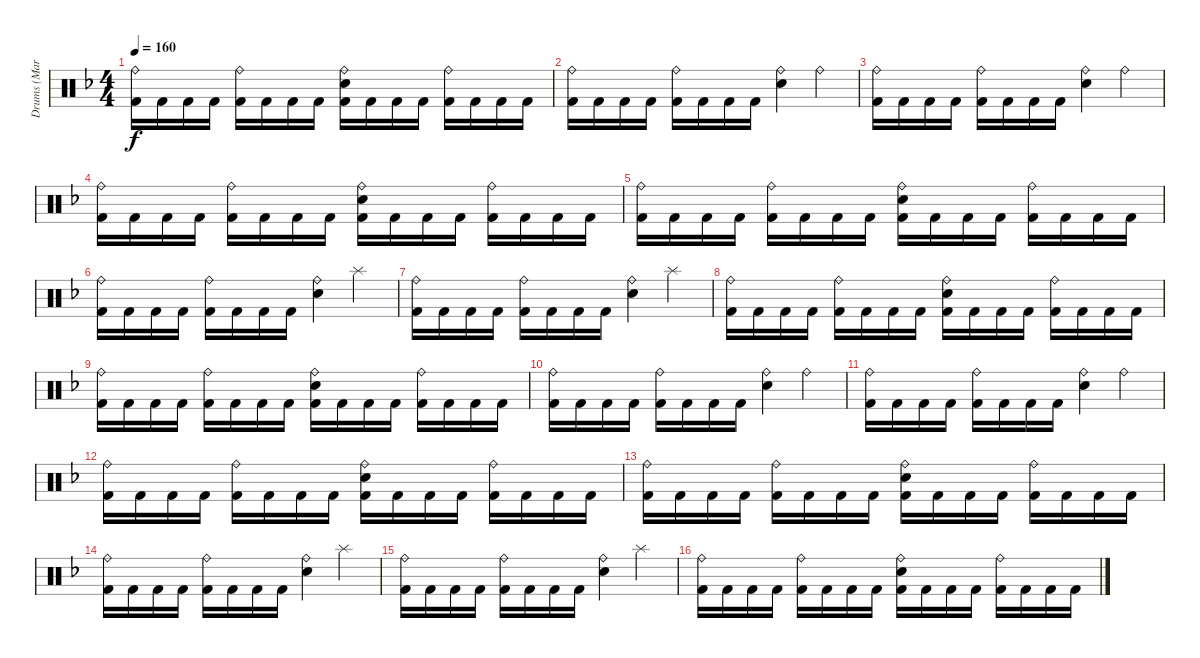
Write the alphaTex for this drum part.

\track ("Drums (Mark)" "Drums (Mar") {instrument percussion}
\staff {score}
\articulation defaults
\ts (4 4)
\tempo 160
\clef neutral
\ks dminor
("Ride (bell)" "Kick (hit) 2").16{dy f} "Kick (hit) 2".16 "Kick (hit) 2".16 "Kick (hit) 2".16 ("Ride (bell)" "Kick (hit) 2").16 "Kick (hit) 2".16 "Kick (hit) 2".16 "Kick (hit) 2".16 ("Ride (bell)" "Snare (hit) 2" "Kick (hit) 2").16 "Kick (hit) 2".16 "Kick (hit) 2".16 "Kick (hit) 2".16 ("Ride (bell)" "Kick (hit) 2").16 "Kick (hit) 2".16 "Kick (hit) 2".16 "Kick (hit) 2".16 |
("Ride (bell)" "Kick (hit) 2").16 "Kick (hit) 2".16 "Kick (hit) 2".16 "Kick (hit) 2".16 ("Ride (bell)" "Kick (hit) 2").16 "Kick (hit) 2".16 "Kick (hit) 2".16 "Kick (hit) 2".16 ("Ride (bell)" "Snare (hit) 2").4 "Ride (bell)".4 |
("Ride (bell)" "Kick (hit) 2").16 "Kick (hit) 2".16 "Kick (hit) 2".16 "Kick (hit) 2".16 ("Ride (bell)" "Kick (hit) 2").16 "Kick (hit) 2".16 "Kick (hit) 2".16 "Kick (hit) 2".16 ("Ride (bell)" "Snare (hit) 2").4 "Ride (bell)".4 |
("Ride (bell)" "Kick (hit) 2").16 "Kick (hit) 2".16 "Kick (hit) 2".16 "Kick (hit) 2".16 ("Ride (bell)" "Kick (hit) 2").16 "Kick (hit) 2".16 "Kick (hit) 2".16 "Kick (hit) 2".16 ("Ride (bell)" "Snare (hit) 2" "Kick (hit) 2").16 "Kick (hit) 2".16 "Kick (hit) 2".16 "Kick (hit) 2".16 ("Ride (bell)" "Kick (hit) 2").16 "Kick (hit) 2".16 "Kick (hit) 2".16 "Kick (hit) 2".16 |
("Ride (bell)" "Kick (hit) 2").16 "Kick (hit) 2".16 "Kick (hit) 2".16 "Kick (hit) 2".16 ("Ride (bell)" "Kick (hit) 2").16 "Kick (hit) 2".16 "Kick (hit) 2".16 "Kick (hit) 2".16 ("Ride (bell)" "Snare (hit) 2" "Kick (hit) 2").16 "Kick (hit) 2".16 "Kick (hit) 2".16 "Kick (hit) 2".16 ("Ride (bell)" "Kick (hit) 2").16 "Kick (hit) 2".16 "Kick (hit) 2".16 "Kick (hit) 2".16 |
("Ride (bell)" "Kick (hit) 2").16 "Kick (hit) 2".16 "Kick (hit) 2".16 "Kick (hit) 2".16 ("Ride (bell)" "Kick (hit) 2").16 "Kick (hit) 2".16 "Kick (hit) 2".16 "Kick (hit) 2".16 ("Ride (bell)" "Snare (hit) 2").4 "Splash (hit)".4 |
("Ride (bell)" "Kick (hit) 2").16 "Kick (hit) 2".16 "Kick (hit) 2".16 "Kick (hit) 2".16 ("Ride (bell)" "Kick (hit) 2").16 "Kick (hit) 2".16 "Kick (hit) 2".16 "Kick (hit) 2".16 ("Ride (bell)" "Snare (hit) 2").4 "Splash (hit)".4 |
("Ride (bell)" "Kick (hit) 2").16 "Kick (hit) 2".16 "Kick (hit) 2".16 "Kick (hit) 2".16 ("Ride (bell)" "Kick (hit) 2").16 "Kick (hit) 2".16 "Kick (hit) 2".16 "Kick (hit) 2".16 ("Ride (bell)" "Snare (hit) 2" "Kick (hit) 2").16 "Kick (hit) 2".16 "Kick (hit) 2".16 "Kick (hit) 2".16 ("Ride (bell)" "Kick (hit) 2").16 "Kick (hit) 2".16 "Kick (hit) 2".16 "Kick (hit) 2".16 |
("Ride (bell)" "Kick (hit) 2").16 "Kick (hit) 2".16 "Kick (hit) 2".16 "Kick (hit) 2".16 ("Ride (bell)" "Kick (hit) 2").16 "Kick (hit) 2".16 "Kick (hit) 2".16 "Kick (hit) 2".16 ("Ride (bell)" "Snare (hit) 2" "Kick (hit) 2").16 "Kick (hit) 2".16 "Kick (hit) 2".16 "Kick (hit) 2".16 ("Ride (bell)" "Kick (hit) 2").16 "Kick (hit) 2".16 "Kick (hit) 2".16 "Kick (hit) 2".16 |
("Ride (bell)" "Kick (hit) 2").16 "Kick (hit) 2".16 "Kick (hit) 2".16 "Kick (hit) 2".16 ("Ride (bell)" "Kick (hit) 2").16 "Kick (hit) 2".16 "Kick (hit) 2".16 "Kick (hit) 2".16 ("Ride (bell)" "Snare (hit) 2").4 "Ride (bell)".4 |
("Ride (bell)" "Kick (hit) 2").16 "Kick (hit) 2".16 "Kick (hit) 2".16 "Kick (hit) 2".16 ("Ride (bell)" "Kick (hit) 2").16 "Kick (hit) 2".16 "Kick (hit) 2".16 "Kick (hit) 2".16 ("Ride (bell)" "Snare (hit) 2").4 "Ride (bell)".4 |
("Ride (bell)" "Kick (hit) 2").16 "Kick (hit) 2".16 "Kick (hit) 2".16 "Kick (hit) 2".16 ("Ride (bell)" "Kick (hit) 2").16 "Kick (hit) 2".16 "Kick (hit) 2".16 "Kick (hit) 2".16 ("Ride (bell)" "Snare (hit) 2" "Kick (hit) 2").16 "Kick (hit) 2".16 "Kick (hit) 2".16 "Kick (hit) 2".16 ("Ride (bell)" "Kick (hit) 2").16 "Kick (hit) 2".16 "Kick (hit) 2".16 "Kick (hit) 2".16 |
("Ride (bell)" "Kick (hit) 2").16 "Kick (hit) 2".16 "Kick (hit) 2".16 "Kick (hit) 2".16 ("Ride (bell)" "Kick (hit) 2").16 "Kick (hit) 2".16 "Kick (hit) 2".16 "Kick (hit) 2".16 ("Ride (bell)" "Snare (hit) 2" "Kick (hit) 2").16 "Kick (hit) 2".16 "Kick (hit) 2".16 "Kick (hit) 2".16 ("Ride (bell)" "Kick (hit) 2").16 "Kick (hit) 2".16 "Kick (hit) 2".16 "Kick (hit) 2".16 |
("Ride (bell)" "Kick (hit) 2").16 "Kick (hit) 2".16 "Kick (hit) 2".16 "Kick (hit) 2".16 ("Ride (bell)" "Kick (hit) 2").16 "Kick (hit) 2".16 "Kick (hit) 2".16 "Kick (hit) 2".16 ("Ride (bell)" "Snare (hit) 2").4 "Splash (hit)".4 |
("Ride (bell)" "Kick (hit) 2").16 "Kick (hit) 2".16 "Kick (hit) 2".16 "Kick (hit) 2".16 ("Ride (bell)" "Kick (hit) 2").16 "Kick (hit) 2".16 "Kick (hit) 2".16 "Kick (hit) 2".16 ("Ride (bell)" "Snare (hit) 2").4 "Splash (hit)".4 |
("Ride (bell)" "Kick (hit) 2").16 "Kick (hit) 2".16 "Kick (hit) 2".16 "Kick (hit) 2".16 ("Ride (bell)" "Kick (hit) 2").16 "Kick (hit) 2".16 "Kick (hit) 2".16 "Kick (hit) 2".16 ("Ride (bell)" "Snare (hit) 2" "Kick (hit) 2").16 "Kick (hit) 2".16 "Kick (hit) 2".16 "Kick (hit) 2".16 ("Ride (bell)" "Kick (hit) 2").16 "Kick (hit) 2".16 "Kick (hit) 2".16 "Kick (hit) 2".16
